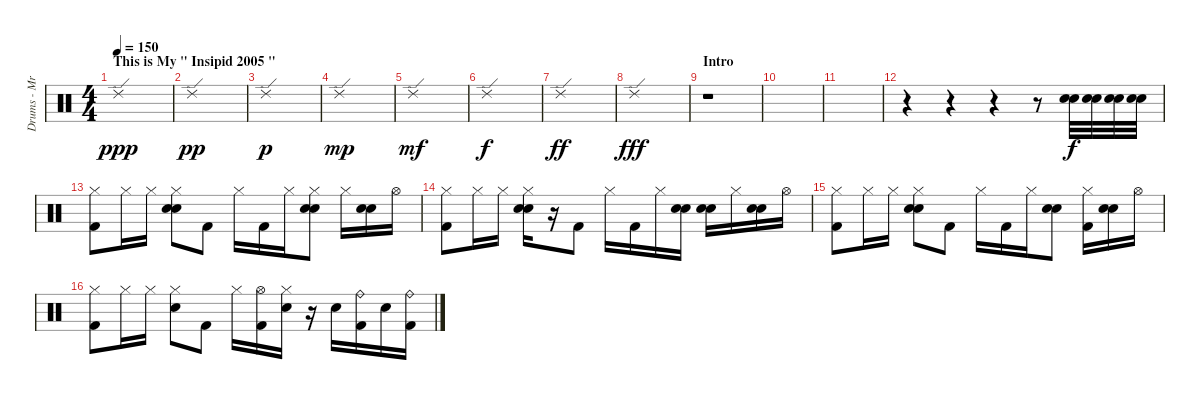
\track ("Drums - Mr. Beller, Thomas" "Drums - Mr") {instrument percussion}
\staff {score}
\articulation defaults
\ts (4 4)
\section ("" "This is My \" Insipid 2005 \"")
\tempo 150
\clef neutral
\ks c "Ride (edge) 2".1{dy ppp}
|
"Ride (edge) 2".1{dy pp} |
"Ride (edge) 2".1{dy p} |
"Ride (edge) 2".1{dy mp} |
"Ride (edge) 2".1{dy mf} |
"Ride (edge) 2".1{dy f} |
"Ride (edge) 2".1{dy ff} |
"Ride (edge) 2".1{dy fff} |
\section ("" "Intro")
r.1 |
|
|
r.4 r.4 r.4 r.8 ("Electric Snare (hit)" "Electric Snare (hit)").32{dy f} ("Electric Snare (hit)" "Electric Snare (hit)").32 ("Electric Snare (hit)" "Electric Snare (hit)").32 ("Electric Snare (hit)" "Electric Snare (hit)").32 |
("Hi-Hat (closed)" "Kick (hit) 2").8 "Hi-Hat (closed)".16 "Hi-Hat (closed)".16 ("Hi-Hat (closed)" "Electric Snare (hit)" "Electric Snare (hit)").8 "Kick (hit) 2".8 "Hi-Hat (closed)".16 "Kick (hit) 2".16 "Hi-Hat (closed)".16 ("Hi-Hat (closed)" "Electric Snare (hit)" "Electric Snare (hit)").8 "Hi-Hat (closed)".16 ("Electric Snare (hit)" "Electric Snare (hit)").16 "Hi-Hat (open)".16 |
("Hi-Hat (closed)" "Kick (hit) 2").8 "Hi-Hat (closed)".16 "Hi-Hat (closed)".16 ("Hi-Hat (closed)" "Electric Snare (hit)" "Electric Snare (hit)").16 r.16 "Kick (hit) 2".8 "Hi-Hat (closed)".16 "Kick (hit) 2".16 "Hi-Hat (closed)".16 ("Electric Snare (hit)" "Electric Snare (hit)").16 ("Electric Snare (hit)" "Electric Snare (hit)").16 "Hi-Hat (closed)".16 ("Electric Snare (hit)" "Electric Snare (hit)").16 "Hi-Hat (open)".16 |
("Hi-Hat (closed)" "Kick (hit) 2").8 "Hi-Hat (closed)".16 "Hi-Hat (closed)".16 ("Hi-Hat (closed)" "Electric Snare (hit)" "Electric Snare (hit)").8 "Kick (hit) 2".8 "Hi-Hat (closed)".16 "Kick (hit) 2".16 "Hi-Hat (closed)".16 ("Electric Snare (hit)" "Electric Snare (hit)").8 ("Hi-Hat (closed)" "Kick (hit) 2").16 ("Electric Snare (hit)" "Electric Snare (hit)").16 "Hi-Hat (open)".16 |
("Hi-Hat (closed)" "Kick (hit) 2").8 "Hi-Hat (closed)".16 "Hi-Hat (closed)".16 ("Hi-Hat (closed)" "Electric Snare (hit)").8 "Kick (hit) 2".8 "Hi-Hat (closed)".16 ("Hi-Hat (open)" "Kick (hit) 2").16 ("Hi-Hat (closed)" "Electric Snare (hit)").16 r.16 "Electric Snare (hit)".16 ("Ride (bell)" "Kick (hit) 2").16 "Electric Snare (hit)".16 ("Ride (bell)" "Kick (hit) 2").16
